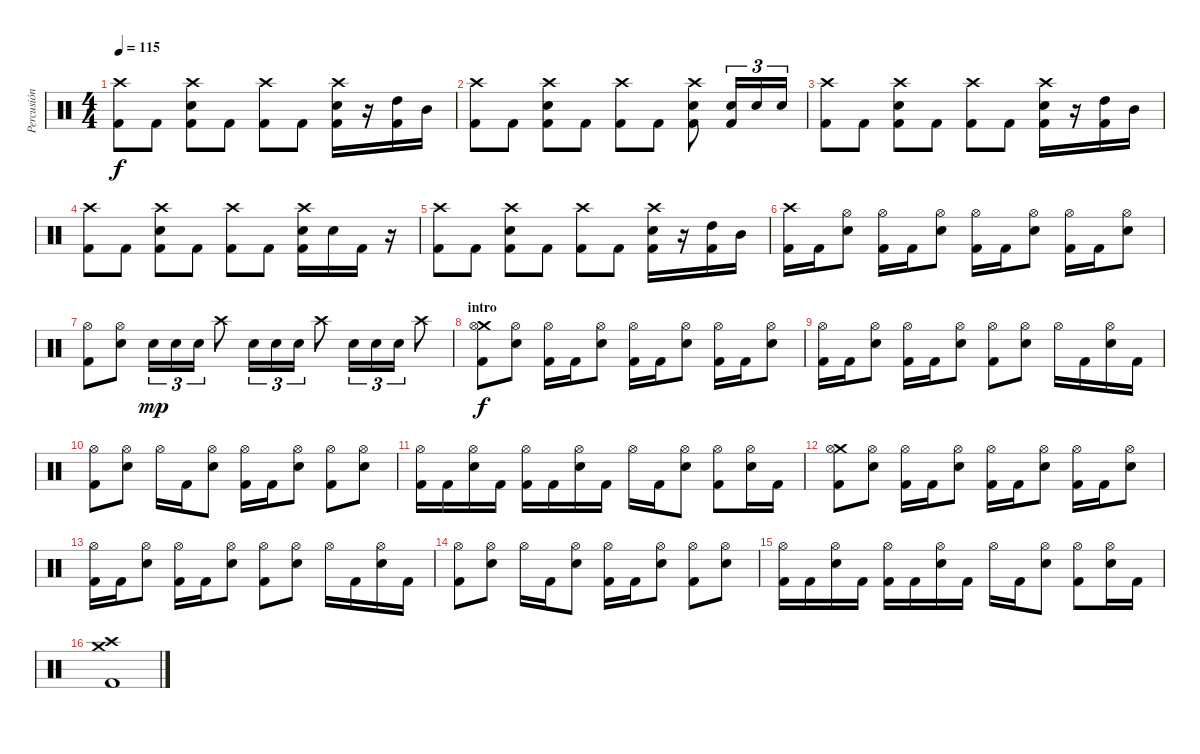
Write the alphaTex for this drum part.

\track ("Percusión" "Percusión") {instrument percussion}
\staff {score}
\articulation defaults
\ts (4 4)
\tempo 115
\clef neutral
\ks c
("Crash high (hit)" "Kick (hit) 2").8{dy f} "Kick (hit) 2".8 ("Crash high (hit)" "Electric Snare (hit)" "Kick (hit) 2").8 "Kick (hit) 2".8 ("Crash high (hit)" "Kick (hit) 2").8 "Kick (hit) 2".8 ("Crash high (hit)" "Electric Snare (hit)" "Kick (hit) 2").16 r.16 ("High Tom (hit)" "Kick (hit) 2").16 "Mid Tom (hit)".16 |
("Crash high (hit)" "Kick (hit) 2").8 "Kick (hit) 2".8 ("Crash high (hit)" "Electric Snare (hit)" "Kick (hit) 2").8 "Kick (hit) 2".8 ("Crash high (hit)" "Kick (hit) 2").8 "Kick (hit) 2".8 ("Crash high (hit)" "Electric Snare (hit)" "Kick (hit) 2").8 ("Electric Snare (hit)" "Kick (hit) 2").16{tu (3 2)} "Electric Snare (hit)".16{tu (3 2)} "Electric Snare (hit)".16{tu (3 2)} |
("Crash high (hit)" "Kick (hit) 2").8 "Kick (hit) 2".8 ("Crash high (hit)" "Electric Snare (hit)" "Kick (hit) 2").8 "Kick (hit) 2".8 ("Crash high (hit)" "Kick (hit) 2").8 "Kick (hit) 2".8 ("Crash high (hit)" "Electric Snare (hit)" "Kick (hit) 2").16 r.16 ("High Tom (hit)" "Kick (hit) 2").16 "Mid Tom (hit)".16 |
("Crash high (hit)" "Kick (hit) 2").8 "Kick (hit) 2".8 ("Crash high (hit)" "Electric Snare (hit)" "Kick (hit) 2").8 "Kick (hit) 2".8 ("Crash high (hit)" "Kick (hit) 2").8 "Kick (hit) 2".8 ("Crash high (hit)" "Electric Snare (hit)" "Kick (hit) 2").16 "Electric Snare (hit)".16 "Kick (hit) 2".16 r.16 |
("Crash high (hit)" "Kick (hit) 2").8 "Kick (hit) 2".8 ("Crash high (hit)" "Electric Snare (hit)" "Kick (hit) 2").8 "Kick (hit) 2".8 ("Crash high (hit)" "Kick (hit) 2").8 "Kick (hit) 2".8 ("Crash high (hit)" "Electric Snare (hit)" "Kick (hit) 2").16 r.16 ("High Tom (hit)" "Kick (hit) 2").16 "Mid Tom (hit)".16 |
("Crash high (hit)" "Kick (hit) 2").16 "Kick (hit) 2".16 ("Hi-Hat (open)" "Electric Snare (hit)").8 ("Hi-Hat (open)" "Kick (hit) 2").16 "Kick (hit) 2".16 ("Hi-Hat (open)" "Electric Snare (hit)").8 ("Hi-Hat (open)" "Kick (hit) 2").16 "Kick (hit) 2".16 ("Hi-Hat (open)" "Electric Snare (hit)").8 ("Hi-Hat (open)" "Kick (hit) 2").16 "Kick (hit) 2".16 ("Hi-Hat (open)" "Electric Snare (hit)").8 |
("Hi-Hat (open)" "Kick (hit) 2").8 ("Hi-Hat (open)" "Electric Snare (hit)").8 "Electric Snare (hit)".16{tu (3 2) dy mp} "Electric Snare (hit)".16{tu (3 2)} "Electric Snare (hit)".16{tu (3 2)} "Crash high (hit)".8 "Electric Snare (hit)".16{tu (3 2)} "Electric Snare (hit)".16{tu (3 2)} "Electric Snare (hit)".16{tu (3 2)} "Crash high (hit)".8 "Electric Snare (hit)".16{tu (3 2)} "Electric Snare (hit)".16{tu (3 2)} "Electric Snare (hit)".16{tu (3 2)} "Crash high (hit)".8 |
\section ("" "intro")
("Crash medium (hit)" "Hi-Hat (open)" "Kick (hit) 2").8{dy f} ("Hi-Hat (open)" "Electric Snare (hit)").8 ("Hi-Hat (open)" "Kick (hit) 2").16 "Kick (hit) 2".16 ("Hi-Hat (open)" "Electric Snare (hit)").8 ("Hi-Hat (open)" "Kick (hit) 2").16 "Kick (hit) 2".16 ("Hi-Hat (open)" "Electric Snare (hit)").8 ("Hi-Hat (open)" "Kick (hit) 2").16 "Kick (hit) 2".16 ("Hi-Hat (open)" "Electric Snare (hit)").8 |
("Hi-Hat (open)" "Kick (hit) 2").16 "Kick (hit) 2".16 ("Hi-Hat (open)" "Electric Snare (hit)").8 ("Hi-Hat (open)" "Kick (hit) 2").16 "Kick (hit) 2".16 ("Hi-Hat (open)" "Electric Snare (hit)").8 ("Hi-Hat (open)" "Kick (hit) 2").8 ("Hi-Hat (open)" "Electric Snare (hit)").8 "Hi-Hat (open)".16 "Kick (hit) 2".16 ("Hi-Hat (open)" "Electric Snare (hit)").16 "Kick (hit) 2".16 |
("Hi-Hat (open)" "Kick (hit) 2").8 ("Hi-Hat (open)" "Electric Snare (hit)").8 "Hi-Hat (open)".16 "Kick (hit) 2".16 ("Hi-Hat (open)" "Electric Snare (hit)").8 ("Hi-Hat (open)" "Kick (hit) 2").16 "Kick (hit) 2".16 ("Hi-Hat (open)" "Electric Snare (hit)").8 ("Hi-Hat (open)" "Kick (hit) 2").8 ("Hi-Hat (open)" "Electric Snare (hit)").8 |
("Hi-Hat (open)" "Kick (hit) 2").16 "Kick (hit) 2".16 ("Hi-Hat (open)" "Electric Snare (hit)").16 "Kick (hit) 2".16 ("Hi-Hat (open)" "Kick (hit) 2").16 "Kick (hit) 2".16 ("Hi-Hat (open)" "Electric Snare (hit)").16 "Kick (hit) 2".16 "Hi-Hat (open)".16 "Kick (hit) 2".16 ("Hi-Hat (open)" "Electric Snare (hit)").8 ("Hi-Hat (open)" "Kick (hit) 2").8 ("Hi-Hat (open)" "Electric Snare (hit)").16 "Kick (hit) 2".16 |
("Crash medium (hit)" "Hi-Hat (open)" "Kick (hit) 2").8 ("Hi-Hat (open)" "Electric Snare (hit)").8 ("Hi-Hat (open)" "Kick (hit) 2").16 "Kick (hit) 2".16 ("Hi-Hat (open)" "Electric Snare (hit)").8 ("Hi-Hat (open)" "Kick (hit) 2").16 "Kick (hit) 2".16 ("Hi-Hat (open)" "Electric Snare (hit)").8 ("Hi-Hat (open)" "Kick (hit) 2").16 "Kick (hit) 2".16 ("Hi-Hat (open)" "Electric Snare (hit)").8 |
("Hi-Hat (open)" "Kick (hit) 2").16 "Kick (hit) 2".16 ("Hi-Hat (open)" "Electric Snare (hit)").8 ("Hi-Hat (open)" "Kick (hit) 2").16 "Kick (hit) 2".16 ("Hi-Hat (open)" "Electric Snare (hit)").8 ("Hi-Hat (open)" "Kick (hit) 2").8 ("Hi-Hat (open)" "Electric Snare (hit)").8 "Hi-Hat (open)".16 "Kick (hit) 2".16 ("Hi-Hat (open)" "Electric Snare (hit)").16 "Kick (hit) 2".16 |
("Hi-Hat (open)" "Kick (hit) 2").8 ("Hi-Hat (open)" "Electric Snare (hit)").8 "Hi-Hat (open)".16 "Kick (hit) 2".16 ("Hi-Hat (open)" "Electric Snare (hit)").8 ("Hi-Hat (open)" "Kick (hit) 2").16 "Kick (hit) 2".16 ("Hi-Hat (open)" "Electric Snare (hit)").8 ("Hi-Hat (open)" "Kick (hit) 2").8 ("Hi-Hat (open)" "Electric Snare (hit)").8 |
("Hi-Hat (open)" "Kick (hit) 2").16 "Kick (hit) 2".16 ("Hi-Hat (open)" "Electric Snare (hit)").16 "Kick (hit) 2".16 ("Hi-Hat (open)" "Kick (hit) 2").16 "Kick (hit) 2".16 ("Hi-Hat (open)" "Electric Snare (hit)").16 "Kick (hit) 2".16 "Hi-Hat (open)".16 "Kick (hit) 2".16 ("Hi-Hat (open)" "Electric Snare (hit)").8 ("Hi-Hat (open)" "Kick (hit) 2").8 ("Hi-Hat (open)" "Electric Snare (hit)").16 "Kick (hit) 2".16 |
("Crash high (hit)" "Crash medium (hit)" "Kick (hit) 2").1
